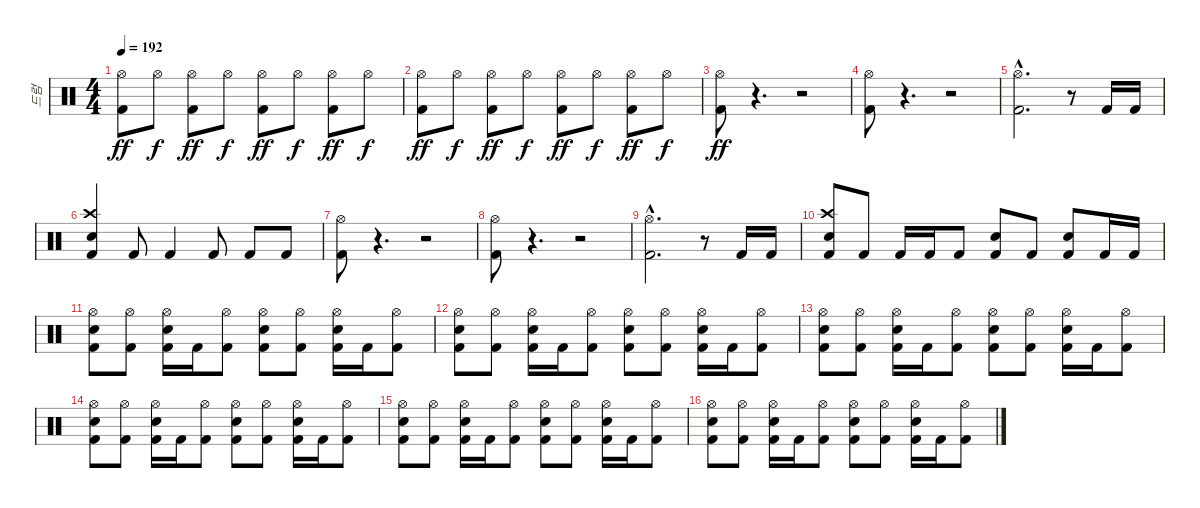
\track ("드럼" "드럼") {instrument percussion}
\staff {score}
\articulation defaults
\ts (4 4)
\tempo 192
\clef neutral
\ks c
("Hi-Hat (open)" "Kick (hit) 2").8{dy ff} "Hi-Hat (open)".8{dy f} ("Hi-Hat (open)" "Kick (hit) 2").8{dy ff} "Hi-Hat (open)".8{dy f} ("Hi-Hat (open)" "Kick (hit) 2").8{dy ff} "Hi-Hat (open)".8{dy f} ("Hi-Hat (open)" "Kick (hit) 2").8{dy ff} "Hi-Hat (open)".8{dy f} |
("Hi-Hat (open)" "Kick (hit) 2").8{dy ff} "Hi-Hat (open)".8{dy f} ("Hi-Hat (open)" "Kick (hit) 2").8{dy ff} "Hi-Hat (open)".8{dy f} ("Hi-Hat (open)" "Kick (hit) 2").8{dy ff} "Hi-Hat (open)".8{dy f} ("Hi-Hat (open)" "Kick (hit) 2").8{dy ff} "Hi-Hat (open)".8{dy f} |
("Hi-Hat (open)" "Kick (hit) 2").8{dy ff} r.4{d} r.2 |
("Hi-Hat (open)" "Kick (hit) 2").8 r.4{d} r.2 |
("Hi-Hat (open)"{hac} "Kick (hit) 2"{hac}).2{d} r.8 "Kick (hit) 2".16 "Kick (hit) 2".16 |
("Crash high (hit)" "Electric Snare (hit)" "Kick (hit) 2").4 "Kick (hit) 2".8 "Kick (hit) 2".4 "Kick (hit) 2".8 "Kick (hit) 2".8 "Kick (hit) 2".8 |
("Hi-Hat (open)" "Kick (hit) 2").8 r.4{d} r.2 |
("Hi-Hat (open)" "Kick (hit) 2").8 r.4{d} r.2 |
("Hi-Hat (open)"{hac} "Kick (hit) 2"{hac}).2{d} r.8 "Kick (hit) 2".16 "Kick (hit) 2".16 |
("Crash high (hit)" "Electric Snare (hit)" "Kick (hit) 2").8 "Kick (hit) 2".8 "Kick (hit) 2".16 "Kick (hit) 2".16 "Kick (hit) 2".8 ("Snare (hit) 2" "Kick (hit) 2").8 "Kick (hit) 2".8 ("Snare (hit) 2" "Kick (hit) 2").8 "Kick (hit) 2".16 "Kick (hit) 2".16 |
("Hi-Hat (open)" "Electric Snare (hit)" "Kick (hit) 2").8 ("Hi-Hat (open)" "Kick (hit) 2").8 ("Hi-Hat (open)" "Electric Snare (hit)" "Kick (hit) 2").16 "Kick (hit) 2".16 ("Hi-Hat (open)" "Kick (hit) 2").8 ("Hi-Hat (open)" "Electric Snare (hit)" "Kick (hit) 2").8 ("Hi-Hat (open)" "Kick (hit) 2").8 ("Hi-Hat (open)" "Electric Snare (hit)" "Kick (hit) 2").16 "Kick (hit) 2".16 ("Hi-Hat (open)" "Kick (hit) 2").8 |
("Hi-Hat (open)" "Electric Snare (hit)" "Kick (hit) 2").8 ("Hi-Hat (open)" "Kick (hit) 2").8 ("Hi-Hat (open)" "Electric Snare (hit)" "Kick (hit) 2").16 "Kick (hit) 2".16 ("Hi-Hat (open)" "Kick (hit) 2").8 ("Hi-Hat (open)" "Electric Snare (hit)" "Kick (hit) 2").8 ("Hi-Hat (open)" "Kick (hit) 2").8 ("Hi-Hat (open)" "Electric Snare (hit)" "Kick (hit) 2").16 "Kick (hit) 2".16 ("Hi-Hat (open)" "Kick (hit) 2").8 |
("Hi-Hat (open)" "Electric Snare (hit)" "Kick (hit) 2").8 ("Hi-Hat (open)" "Kick (hit) 2").8 ("Hi-Hat (open)" "Electric Snare (hit)" "Kick (hit) 2").16 "Kick (hit) 2".16 ("Hi-Hat (open)" "Kick (hit) 2").8 ("Hi-Hat (open)" "Electric Snare (hit)" "Kick (hit) 2").8 ("Hi-Hat (open)" "Kick (hit) 2").8 ("Hi-Hat (open)" "Electric Snare (hit)" "Kick (hit) 2").16 "Kick (hit) 2".16 ("Hi-Hat (open)" "Kick (hit) 2").8 |
("Hi-Hat (open)" "Electric Snare (hit)" "Kick (hit) 2").8 ("Hi-Hat (open)" "Kick (hit) 2").8 ("Hi-Hat (open)" "Electric Snare (hit)" "Kick (hit) 2").16 "Kick (hit) 2".16 ("Hi-Hat (open)" "Kick (hit) 2").8 ("Hi-Hat (open)" "Electric Snare (hit)" "Kick (hit) 2").8 ("Hi-Hat (open)" "Kick (hit) 2").8 ("Hi-Hat (open)" "Electric Snare (hit)" "Kick (hit) 2").16 "Kick (hit) 2".16 ("Hi-Hat (open)" "Kick (hit) 2").8 |
("Hi-Hat (open)" "Electric Snare (hit)" "Kick (hit) 2").8 ("Hi-Hat (open)" "Kick (hit) 2").8 ("Hi-Hat (open)" "Electric Snare (hit)" "Kick (hit) 2").16 "Kick (hit) 2".16 ("Hi-Hat (open)" "Kick (hit) 2").8 ("Hi-Hat (open)" "Electric Snare (hit)" "Kick (hit) 2").8 ("Hi-Hat (open)" "Kick (hit) 2").8 ("Hi-Hat (open)" "Electric Snare (hit)" "Kick (hit) 2").16 "Kick (hit) 2".16 ("Hi-Hat (open)" "Kick (hit) 2").8 |
("Hi-Hat (open)" "Electric Snare (hit)" "Kick (hit) 2").8 ("Hi-Hat (open)" "Kick (hit) 2").8 ("Hi-Hat (open)" "Electric Snare (hit)" "Kick (hit) 2").16 "Kick (hit) 2".16 ("Hi-Hat (open)" "Kick (hit) 2").8 ("Hi-Hat (open)" "Electric Snare (hit)" "Kick (hit) 2").8 ("Hi-Hat (open)" "Kick (hit) 2").8 ("Hi-Hat (open)" "Electric Snare (hit)" "Kick (hit) 2").16 "Kick (hit) 2".16 ("Hi-Hat (open)" "Kick (hit) 2").8
